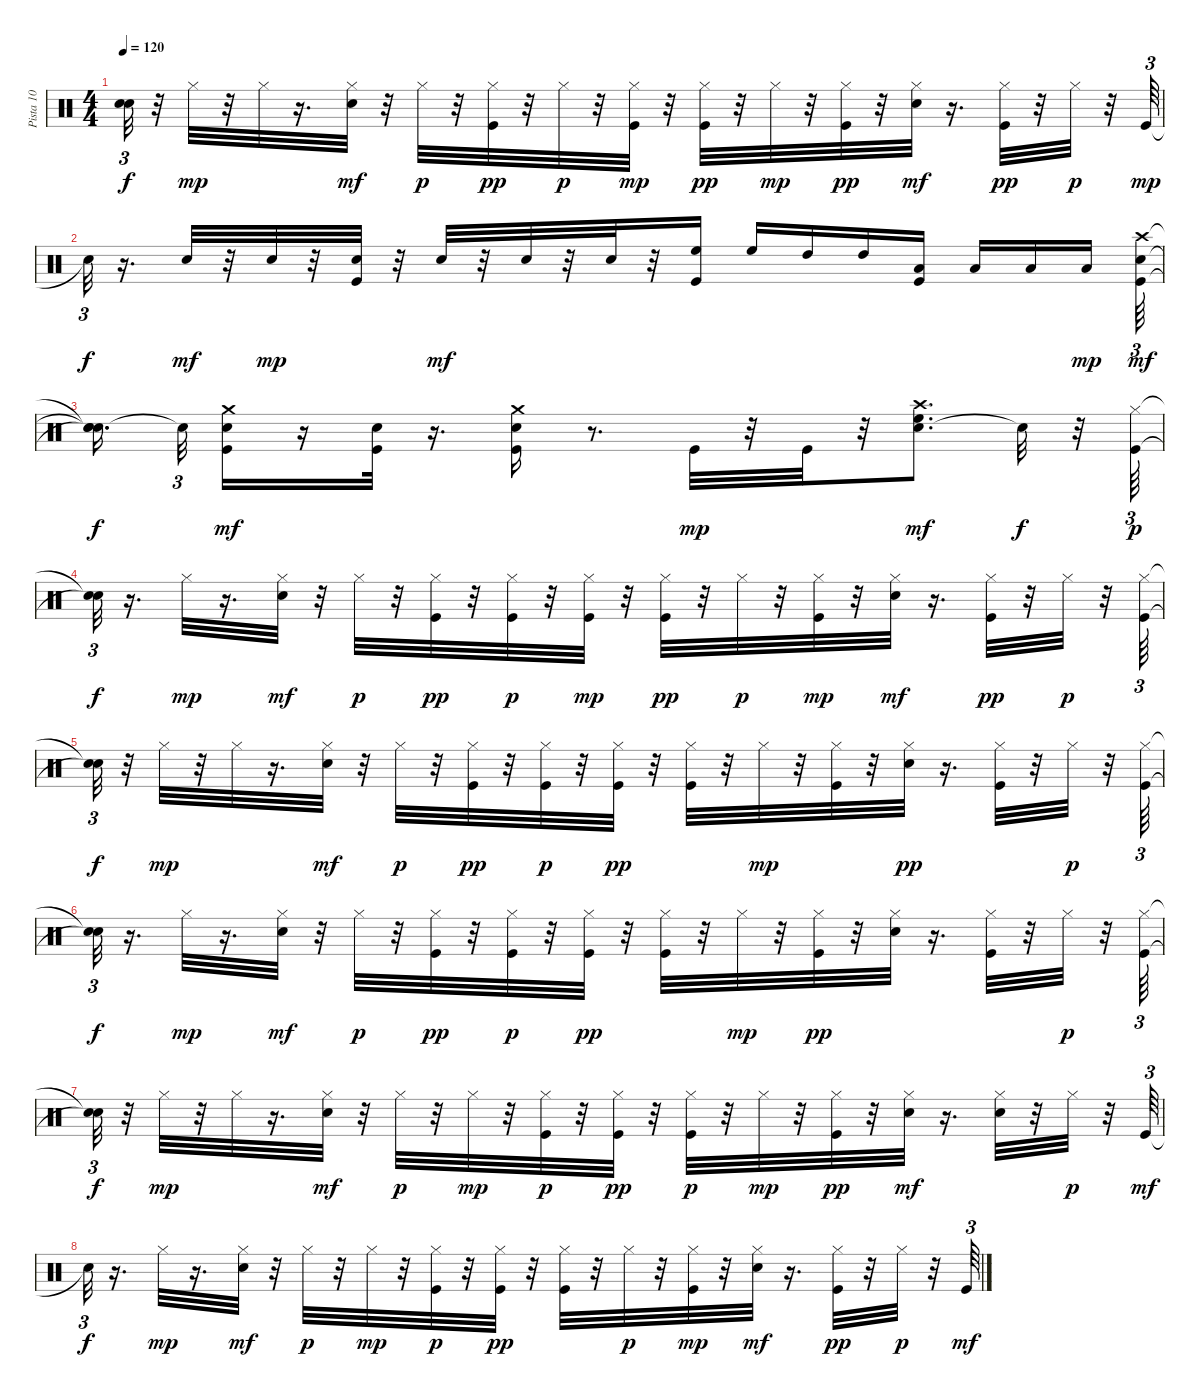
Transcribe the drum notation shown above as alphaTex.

\track ("Pista 10" "Pista 10") {instrument percussion}
\staff {score}
\articulation defaults
\ts (4 4)
\tempo 120
\clef neutral
\ks c
("Snare (hit)"{t} "Snare (hit)"{t}).32{tu (3 2) dy f} r.32 "Hi-Hat (closed)".32{dy mp} r.32 "Hi-Hat (closed)".32 r.16{d} ("Hi-Hat (closed)" "Snare (hit) 2").32{dy mf} r.32 "Hi-Hat (closed)".32{dy p} r.32 ("Hi-Hat (closed)" "Kick (hit)").32{dy pp} r.32 "Hi-Hat (closed)".32{dy p} r.32 ("Kick (hit)" "Hi-Hat (closed)").32{dy mp} r.32 ("Hi-Hat (closed)" "Kick (hit)").32{dy pp} r.32 "Hi-Hat (closed)".32{dy mp} r.32 ("Hi-Hat (closed)" "Kick (hit)").32{dy pp} r.32 ("Hi-Hat (closed)" "Snare (hit) 2").32{dy mf} r.16{d} ("Hi-Hat (closed)" "Kick (hit)").32{dy pp} r.32 "Hi-Hat (closed)".32{dy p} r.32 "Kick (hit)".64{tu (3 2) dy mp} |
"Snare (hit)"{t}.32{tu (3 2) dy f} r.16{d} "Snare (hit) 2".32{dy mf} r.32 "Snare (hit) 2".32{dy mp} r.32 ("Kick (hit)" "Snare (hit) 2").32 r.32 "Snare (hit) 2".32{dy mf} r.32 "Snare (hit) 2".32 r.32 "Snare (hit) 2".32 r.32 ("Kick (hit)" "High Floor Tom (hit)").16 "High Floor Tom (hit)".16 "High Tom (hit)".16 "High Tom (hit)".16 ("Kick (hit)" "Low Tom (hit)").16 "Low Tom (hit)".16 "Low Tom (hit)".16 "Low Tom (hit)".16{dy mp beam splitsecondary} ("Kick (hit)" "Crash high (hit)" "Snare (hit) 2").64{tu (3 2) dy mf} |
("Snare (hit)"{t} "Snare (hit)"{t} "Snare (hit)"{t}).16{d dy f beam splitsecondary} "Snare (hit)"{t}.32{tu (3 2)} ("Kick (hit)" "Crash medium (hit)" "Snare (hit) 2").16{dy mf} r.16 ("Kick (hit)" "Snare (hit) 2").32 r.16{d} ("Kick (hit)" "Crash medium (hit)" "Snare (hit) 2").16 r.8{d} "Kick (hit)".32{dy mp} r.32 "Kick (hit)".32 r.32 ("Snare (hit) 2" "Crash high (hit)" "High Floor Tom (hit)").8{d dy mf} "Snare (hit)"{t}.32{dy f} r.32 ("Kick (hit)" "Hi-Hat (closed)").64{tu (3 2) dy p} |
("Snare (hit)"{t} "Snare (hit)"{t}).32{tu (3 2) dy f} r.16{d} "Hi-Hat (closed)".32{dy mp} r.16{d} ("Hi-Hat (closed)" "Snare (hit) 2").32{dy mf} r.32 "Hi-Hat (closed)".32{dy p} r.32 ("Hi-Hat (closed)" "Kick (hit)").32{dy pp} r.32 ("Kick (hit)" "Hi-Hat (closed)").32{dy p} r.32 ("Kick (hit)" "Hi-Hat (closed)").32{dy mp} r.32 ("Hi-Hat (closed)" "Kick (hit)").32{dy pp} r.32 "Hi-Hat (closed)".32{dy p} r.32 ("Hi-Hat (closed)" "Kick (hit)").32{dy mp} r.32 ("Hi-Hat (closed)" "Snare (hit) 2").32{dy mf} r.16{d} ("Hi-Hat (closed)" "Kick (hit)").32{dy pp} r.32 "Hi-Hat (closed)".32{dy p} r.32 ("Kick (hit)" "Hi-Hat (closed)").64{tu (3 2)} |
("Snare (hit)"{t} "Snare (hit)"{t}).32{tu (3 2) dy f} r.32 "Hi-Hat (closed)".32{dy mp} r.32 "Hi-Hat (closed)".32 r.16{d} ("Hi-Hat (closed)" "Snare (hit) 2").32{dy mf} r.32 "Hi-Hat (closed)".32{dy p} r.32 ("Hi-Hat (closed)" "Kick (hit)").32{dy pp} r.32 ("Kick (hit)" "Hi-Hat (closed)").32{dy p} r.32 ("Kick (hit)" "Hi-Hat (closed)").32{dy pp} r.32 ("Hi-Hat (closed)" "Kick (hit)").32 r.32 "Hi-Hat (closed)".32{dy mp} r.32 ("Hi-Hat (closed)" "Kick (hit)").32 r.32 ("Snare (hit) 2" "Hi-Hat (closed)").32{dy pp} r.16{d} ("Hi-Hat (closed)" "Kick (hit)").32 r.32 "Hi-Hat (closed)".32{dy p} r.32 ("Kick (hit)" "Hi-Hat (closed)").64{tu (3 2)} |
("Snare (hit)"{t} "Snare (hit)"{t}).32{tu (3 2) dy f} r.16{d} "Hi-Hat (closed)".32{dy mp} r.16{d} ("Hi-Hat (closed)" "Snare (hit) 2").32{dy mf} r.32 "Hi-Hat (closed)".32{dy p} r.32 ("Hi-Hat (closed)" "Kick (hit)").32{dy pp} r.32 ("Kick (hit)" "Hi-Hat (closed)").32{dy p} r.32 ("Kick (hit)" "Hi-Hat (closed)").32{dy pp} r.32 ("Hi-Hat (closed)" "Kick (hit)").32 r.32 "Hi-Hat (closed)".32{dy mp} r.32 ("Hi-Hat (closed)" "Kick (hit)").32{dy pp} r.32 ("Snare (hit) 2" "Hi-Hat (closed)").32 r.16{d} ("Hi-Hat (closed)" "Kick (hit)").32 r.32 "Hi-Hat (closed)".32{dy p} r.32 ("Kick (hit)" "Hi-Hat (closed)").64{tu (3 2)} |
("Snare (hit)"{t} "Snare (hit)"{t}).32{tu (3 2) dy f} r.32 "Hi-Hat (closed)".32{dy mp} r.32 "Hi-Hat (closed)".32 r.16{d} ("Hi-Hat (closed)" "Snare (hit) 2").32{dy mf} r.32 "Hi-Hat (closed)".32{dy p} r.32 "Hi-Hat (closed)".32{dy mp} r.32 ("Kick (hit)" "Hi-Hat (closed)").32{dy p} r.32 ("Kick (hit)" "Hi-Hat (closed)").32{dy pp} r.32 ("Kick (hit)" "Hi-Hat (closed)").32{dy p} r.32 "Hi-Hat (closed)".32{dy mp} r.32 ("Kick (hit)" "Hi-Hat (closed)").32{dy pp} r.32 ("Hi-Hat (closed)" "Snare (hit) 2").32{dy mf} r.16{d} ("Hi-Hat (closed)" "Snare (hit) 2").32 r.32 "Hi-Hat (closed)".32{dy p} r.32 "Kick (hit)".64{tu (3 2) dy mf} |
"Snare (hit)"{t}.32{tu (3 2) dy f} r.16{d} "Hi-Hat (closed)".32{dy mp} r.16{d} ("Hi-Hat (closed)" "Snare (hit) 2").32{dy mf} r.32 "Hi-Hat (closed)".32{dy p} r.32 "Hi-Hat (closed)".32{dy mp} r.32 ("Kick (hit)" "Hi-Hat (closed)").32{dy p} r.32 ("Kick (hit)" "Hi-Hat (closed)").32{dy pp} r.32 ("Hi-Hat (closed)" "Kick (hit)").32 r.32 "Hi-Hat (closed)".32{dy p} r.32 ("Hi-Hat (closed)" "Kick (hit)").32{dy mp} r.32 ("Hi-Hat (closed)" "Snare (hit) 2").32{dy mf} r.16{d} ("Hi-Hat (closed)" "Kick (hit)").32{dy pp} r.32 "Hi-Hat (closed)".32{dy p} r.32 "Kick (hit)".64{tu (3 2) dy mf}
